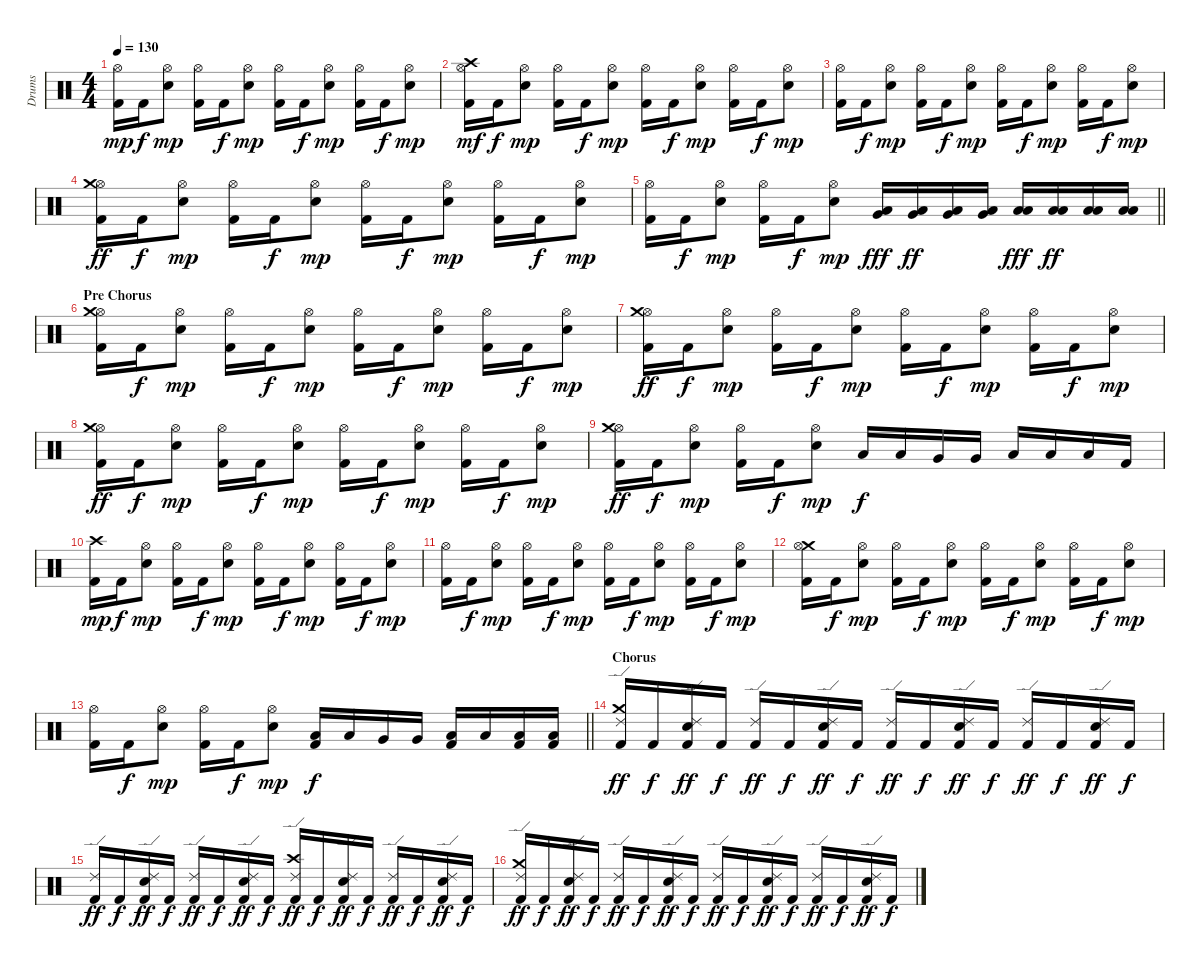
\track ("Drums" "Drums") {instrument percussion}
\staff {score}
\articulation defaults
\ts (4 4)
\tempo 130
\clef neutral
\ks c
("Kick (hit) 2" "Hi-Hat (open)").16{dy mp} "Kick (hit) 2".16{dy f} ("Hi-Hat (open)" "Snare (hit) 2").8{dy mp} ("Kick (hit) 2" "Hi-Hat (open)").16 "Kick (hit) 2".16{dy f} ("Hi-Hat (open)" "Snare (hit) 2").8{dy mp} ("Kick (hit) 2" "Hi-Hat (open)").16 "Kick (hit) 2".16{dy f} ("Hi-Hat (open)" "Snare (hit) 2").8{dy mp} ("Kick (hit) 2" "Hi-Hat (open)").16 "Kick (hit) 2".16{dy f} ("Hi-Hat (open)" "Snare (hit) 2").8{dy mp} |
("Kick (hit) 2" "Hi-Hat (open)" "Crash high (hit)").16{dy mf} "Kick (hit) 2".16{dy f} ("Hi-Hat (open)" "Snare (hit) 2").8{dy mp} ("Kick (hit) 2" "Hi-Hat (open)").16 "Kick (hit) 2".16{dy f} ("Hi-Hat (open)" "Snare (hit) 2").8{dy mp} ("Kick (hit) 2" "Hi-Hat (open)").16 "Kick (hit) 2".16{dy f} ("Hi-Hat (open)" "Snare (hit) 2").8{dy mp} ("Kick (hit) 2" "Hi-Hat (open)").16 "Kick (hit) 2".16{dy f} ("Hi-Hat (open)" "Snare (hit) 2").8{dy mp} |
("Kick (hit) 2" "Hi-Hat (open)").16 "Kick (hit) 2".16{dy f} ("Hi-Hat (open)" "Snare (hit) 2").8{dy mp} ("Kick (hit) 2" "Hi-Hat (open)").16 "Kick (hit) 2".16{dy f} ("Hi-Hat (open)" "Snare (hit) 2").8{dy mp} ("Kick (hit) 2" "Hi-Hat (open)").16 "Kick (hit) 2".16{dy f} ("Hi-Hat (open)" "Snare (hit) 2").8{dy mp} ("Kick (hit) 2" "Hi-Hat (open)").16 "Kick (hit) 2".16{dy f} ("Hi-Hat (open)" "Snare (hit) 2").8{dy mp} |
("Kick (hit) 2" "Hi-Hat (open)" "Crash medium (hit)").16{dy ff} "Kick (hit) 2".16{dy f} ("Hi-Hat (open)" "Snare (hit) 2").8{dy mp} ("Kick (hit) 2" "Hi-Hat (open)").16 "Kick (hit) 2".16{dy f} ("Hi-Hat (open)" "Snare (hit) 2").8{dy mp} ("Kick (hit) 2" "Hi-Hat (open)").16 "Kick (hit) 2".16{dy f} ("Hi-Hat (open)" "Snare (hit) 2").8{dy mp} ("Kick (hit) 2" "Hi-Hat (open)").16 "Kick (hit) 2".16{dy f} ("Hi-Hat (open)" "Snare (hit) 2").8{dy mp} |
\barLineRight lightlight
("Kick (hit) 2" "Hi-Hat (open)").16 "Kick (hit) 2".16{dy f} ("Hi-Hat (open)" "Snare (hit) 2").8{dy mp} ("Kick (hit) 2" "Hi-Hat (open)").16 "Kick (hit) 2".16{dy f} ("Hi-Hat (open)" "Snare (hit) 2").8{dy mp} ("Low Tom (hit)" "Very Low Tom (hit)").16{dy fff} ("Low Tom (hit)" "Very Low Tom (hit)").16{dy ff} ("Low Tom (hit)" "Very Low Tom (hit)").16 ("Low Tom (hit)" "Very Low Tom (hit)").16 ("Low Tom (hit)" "Low Floor Tom (hit)").16{dy fff} ("Low Tom (hit)" "Low Floor Tom (hit)").16{dy ff} ("Low Tom (hit)" "Low Floor Tom (hit)").16 ("Low Tom (hit)" "Low Floor Tom (hit)").16 |
\section ("" "Pre Chorus")
("Kick (hit) 2" "Hi-Hat (open)" "Crash medium (hit)").16 "Kick (hit) 2".16{dy f} ("Hi-Hat (open)" "Snare (hit) 2").8{dy mp} ("Kick (hit) 2" "Hi-Hat (open)").16 "Kick (hit) 2".16{dy f} ("Hi-Hat (open)" "Snare (hit) 2").8{dy mp} ("Kick (hit) 2" "Hi-Hat (open)").16 "Kick (hit) 2".16{dy f} ("Hi-Hat (open)" "Snare (hit) 2").8{dy mp} ("Kick (hit) 2" "Hi-Hat (open)").16 "Kick (hit) 2".16{dy f} ("Hi-Hat (open)" "Snare (hit) 2").8{dy mp} |
("Kick (hit) 2" "Hi-Hat (open)" "Crash medium (hit)").16{dy ff} "Kick (hit) 2".16{dy f} ("Hi-Hat (open)" "Snare (hit) 2").8{dy mp} ("Kick (hit) 2" "Hi-Hat (open)").16 "Kick (hit) 2".16{dy f} ("Hi-Hat (open)" "Snare (hit) 2").8{dy mp} ("Kick (hit) 2" "Hi-Hat (open)").16 "Kick (hit) 2".16{dy f} ("Hi-Hat (open)" "Snare (hit) 2").8{dy mp} ("Kick (hit) 2" "Hi-Hat (open)").16 "Kick (hit) 2".16{dy f} ("Hi-Hat (open)" "Snare (hit) 2").8{dy mp} |
("Kick (hit) 2" "Hi-Hat (open)" "Crash medium (hit)").16{dy ff} "Kick (hit) 2".16{dy f} ("Hi-Hat (open)" "Snare (hit) 2").8{dy mp} ("Kick (hit) 2" "Hi-Hat (open)").16 "Kick (hit) 2".16{dy f} ("Hi-Hat (open)" "Snare (hit) 2").8{dy mp} ("Kick (hit) 2" "Hi-Hat (open)").16 "Kick (hit) 2".16{dy f} ("Hi-Hat (open)" "Snare (hit) 2").8{dy mp} ("Kick (hit) 2" "Hi-Hat (open)").16 "Kick (hit) 2".16{dy f} ("Hi-Hat (open)" "Snare (hit) 2").8{dy mp} |
("Kick (hit) 2" "Hi-Hat (open)" "Crash medium (hit)").16{dy ff} "Kick (hit) 2".16{dy f} ("Hi-Hat (open)" "Snare (hit) 2").8{dy mp} ("Kick (hit) 2" "Hi-Hat (open)").16 "Kick (hit) 2".16{dy f} ("Hi-Hat (open)" "Snare (hit) 2").8{dy mp} "Low Tom (hit)".16{dy f} "Low Tom (hit)".16 "Very Low Tom (hit)".16 "Very Low Tom (hit)".16 "Low Floor Tom (hit)".16 "Low Floor Tom (hit)".16 "Low Floor Tom (hit)".16 "Kick (hit) 2".16 |
("Crash high (hit)" "Kick (hit) 2").16{dy mp} "Kick (hit) 2".16{dy f} ("Hi-Hat (open)" "Snare (hit) 2").8{dy mp} ("Hi-Hat (open)" "Kick (hit) 2").16 "Kick (hit) 2".16{dy f} ("Hi-Hat (open)" "Snare (hit) 2").8{dy mp} ("Hi-Hat (open)" "Kick (hit) 2").16 "Kick (hit) 2".16{dy f} ("Hi-Hat (open)" "Snare (hit) 2").8{dy mp} ("Hi-Hat (open)" "Kick (hit) 2").16 "Kick (hit) 2".16{dy f} ("Hi-Hat (open)" "Snare (hit) 2").8{dy mp} |
("Hi-Hat (open)" "Kick (hit) 2").16 "Kick (hit) 2".16{dy f} ("Hi-Hat (open)" "Snare (hit) 2").8{dy mp} ("Hi-Hat (open)" "Kick (hit) 2").16 "Kick (hit) 2".16{dy f} ("Hi-Hat (open)" "Snare (hit) 2").8{dy mp} ("Hi-Hat (open)" "Kick (hit) 2").16 "Kick (hit) 2".16{dy f} ("Hi-Hat (open)" "Snare (hit) 2").8{dy mp} ("Hi-Hat (open)" "Kick (hit) 2").16 "Kick (hit) 2".16{dy f} ("Hi-Hat (open)" "Snare (hit) 2").8{dy mp} |
("Crash medium (hit)" "Hi-Hat (open)" "Kick (hit) 2").16 "Kick (hit) 2".16{dy f} ("Hi-Hat (open)" "Snare (hit) 2").8{dy mp} ("Hi-Hat (open)" "Kick (hit) 2").16 "Kick (hit) 2".16{dy f} ("Hi-Hat (open)" "Snare (hit) 2").8{dy mp} ("Hi-Hat (open)" "Kick (hit) 2").16 "Kick (hit) 2".16{dy f} ("Hi-Hat (open)" "Snare (hit) 2").8{dy mp} ("Hi-Hat (open)" "Kick (hit) 2").16 "Kick (hit) 2".16{dy f} ("Hi-Hat (open)" "Snare (hit) 2").8{dy mp} |
\barLineRight lightlight
("Hi-Hat (open)" "Kick (hit) 2").16 "Kick (hit) 2".16{dy f} ("Hi-Hat (open)" "Snare (hit) 2").8{dy mp} ("Hi-Hat (open)" "Kick (hit) 2").16 "Kick (hit) 2".16{dy f} ("Hi-Hat (open)" "Snare (hit) 2").8{dy mp} ("Low Tom (hit)" "Kick (hit) 2").16{dy f} "Low Tom (hit)".16 "Very Low Tom (hit)".16 "Very Low Tom (hit)".16 ("Low Floor Tom (hit)" "Kick (hit) 2").16 "Low Floor Tom (hit)".16 ("Low Floor Tom (hit)" "Kick (hit) 2").16 ("Low Floor Tom (hit)" "Kick (hit) 2").16 |
\section ("" "Chorus")
("Crash medium (hit)" "Ride (edge) 2" "Kick (hit) 2").16{dy ff} "Kick (hit) 2".16{dy f} ("Ride (edge) 2" "Snare (hit) 2" "Kick (hit) 2").16{dy ff} "Kick (hit) 2".16{dy f} ("Ride (edge) 2" "Kick (hit) 2").16{dy ff} "Kick (hit) 2".16{dy f} ("Ride (edge) 2" "Snare (hit) 2" "Kick (hit) 2").16{dy ff} "Kick (hit) 2".16{dy f} ("Ride (edge) 2" "Kick (hit) 2").16{dy ff} "Kick (hit) 2".16{dy f} ("Ride (edge) 2" "Snare (hit) 2" "Kick (hit) 2").16{dy ff} "Kick (hit) 2".16{dy f} ("Ride (edge) 2" "Kick (hit) 2").16{dy ff} "Kick (hit) 2".16{dy f} ("Ride (edge) 2" "Snare (hit) 2" "Kick (hit) 2").16{dy ff} "Kick (hit) 2".16{dy f} |
("Ride (edge) 2" "Kick (hit) 2").16{dy ff} "Kick (hit) 2".16{dy f} ("Ride (edge) 2" "Snare (hit) 2" "Kick (hit) 2").16{dy ff} "Kick (hit) 2".16{dy f} ("Ride (edge) 2" "Kick (hit) 2").16{dy ff} "Kick (hit) 2".16{dy f} ("Ride (edge) 2" "Snare (hit) 2" "Kick (hit) 2").16{dy ff} "Kick (hit) 2".16{dy f} ("Crash high (hit)" "Ride (edge) 2" "Kick (hit) 2").16{dy ff} "Kick (hit) 2".16{dy f} ("Ride (edge) 2" "Snare (hit) 2" "Kick (hit) 2").16{dy ff} "Kick (hit) 2".16{dy f} ("Ride (edge) 2" "Kick (hit) 2").16{dy ff} "Kick (hit) 2".16{dy f} ("Ride (edge) 2" "Snare (hit) 2" "Kick (hit) 2").16{dy ff} "Kick (hit) 2".16{dy f} |
("Crash medium (hit)" "Ride (edge) 2" "Kick (hit) 2").16{dy ff} "Kick (hit) 2".16{dy f} ("Ride (edge) 2" "Snare (hit) 2" "Kick (hit) 2").16{dy ff} "Kick (hit) 2".16{dy f} ("Ride (edge) 2" "Kick (hit) 2").16{dy ff} "Kick (hit) 2".16{dy f} ("Ride (edge) 2" "Snare (hit) 2" "Kick (hit) 2").16{dy ff} "Kick (hit) 2".16{dy f} ("Ride (edge) 2" "Kick (hit) 2").16{dy ff} "Kick (hit) 2".16{dy f} ("Ride (edge) 2" "Snare (hit) 2" "Kick (hit) 2").16{dy ff} "Kick (hit) 2".16{dy f} ("Ride (edge) 2" "Kick (hit) 2").16{dy ff} "Kick (hit) 2".16{dy f} ("Ride (edge) 2" "Snare (hit) 2" "Kick (hit) 2").16{dy ff} "Kick (hit) 2".16{dy f}
